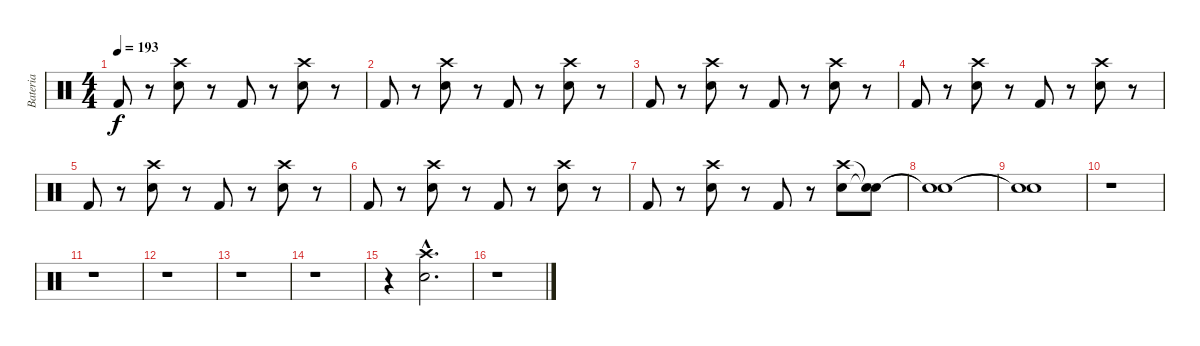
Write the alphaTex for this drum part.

\track ("Bateria" "Bateria") {instrument percussion}
\staff {score}
\articulation defaults
\ts (4 4)
\tempo 193
\clef neutral
\ks c "Kick (hit) 2".8{dy f}
r.8 ("Electric Snare (hit)" "Crash high (hit)").8 r.8 "Kick (hit) 2".8 r.8 ("Electric Snare (hit)" "Crash high (hit)").8 r.8 |
"Kick (hit) 2".8 r.8 ("Electric Snare (hit)" "Crash high (hit)").8 r.8 "Kick (hit) 2".8 r.8 ("Electric Snare (hit)" "Crash high (hit)").8 r.8 |
"Kick (hit) 2".8 r.8 ("Electric Snare (hit)" "Crash high (hit)").8 r.8 "Kick (hit) 2".8 r.8 ("Electric Snare (hit)" "Crash high (hit)").8 r.8 |
"Kick (hit) 2".8 r.8 ("Electric Snare (hit)" "Crash high (hit)").8 r.8 "Kick (hit) 2".8 r.8 ("Electric Snare (hit)" "Crash high (hit)").8 r.8 |
"Kick (hit) 2".8 r.8 ("Electric Snare (hit)" "Crash high (hit)").8 r.8 "Kick (hit) 2".8 r.8 ("Electric Snare (hit)" "Crash high (hit)").8 r.8 |
"Kick (hit) 2".8 r.8 ("Electric Snare (hit)" "Crash high (hit)").8 r.8 "Kick (hit) 2".8 r.8 ("Electric Snare (hit)" "Crash high (hit)").8 r.8 |
"Kick (hit) 2".8 r.8 ("Electric Snare (hit)" "Crash high (hit)").8 r.8 "Kick (hit) 2".8 r.8 ("Electric Snare (hit)" "Crash high (hit)").8 ("Snare (hit)"{t} "Snare (hit)"{t}).8 |
("Snare (hit)"{t} "Snare (hit)"{t}).1 |
("Snare (hit)"{t} "Snare (hit)"{t}).1 |
r.1 |
r.1 |
r.1 |
r.1 |
r.1 |
r.4 ("Electric Snare (hit)"{hac} "Crash high (hit)"{hac}).2{d} |
r.1
